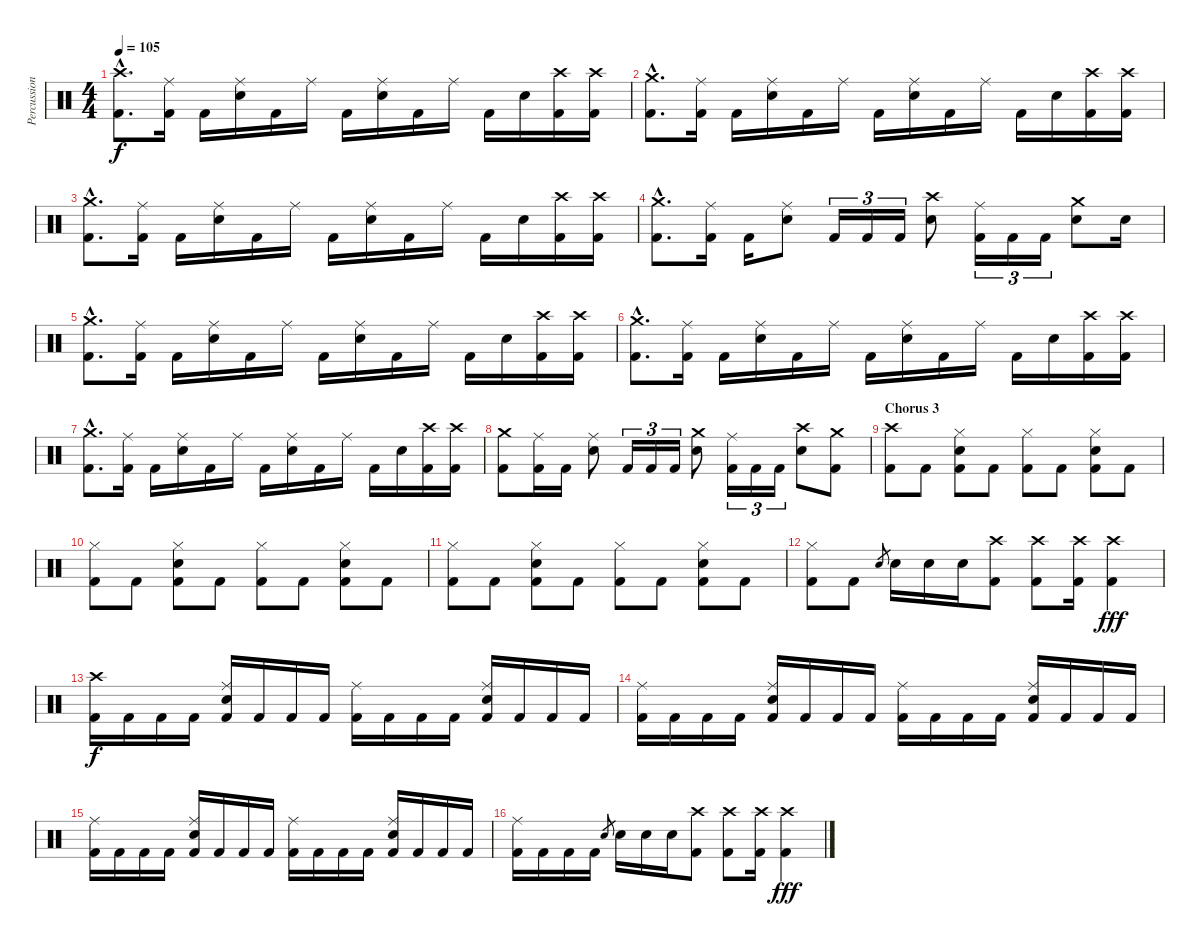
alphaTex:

\track ("Percussion" "Percussion") {instrument percussion}
\staff {score}
\articulation defaults
\ts (4 4)
\tempo 105
\clef neutral
\ks c
("Crash high (hit)"{hac} "Kick (hit) 2"{hac}).8{d dy f} ("Ride (middle)" "Kick (hit) 2").16 "Kick (hit) 2".16 ("Ride (middle)" "Snare (hit) 2").16 "Kick (hit) 2".16 "Ride (middle)".16 "Kick (hit) 2".16 ("Ride (middle)" "Snare (hit) 2").16 "Kick (hit) 2".16 "Ride (middle)".16 "Kick (hit) 2".16 "Snare (hit) 2".16 ("Crash high (hit)" "Kick (hit) 2").16 ("Crash high (hit)" "Kick (hit) 2").16 |
("Crash medium (hit)"{hac} "Kick (hit) 2"{hac}).8{d} ("Ride (middle)" "Kick (hit) 2").16 "Kick (hit) 2".16 ("Ride (middle)" "Snare (hit) 2").16 "Kick (hit) 2".16 "Ride (middle)".16 "Kick (hit) 2".16 ("Ride (middle)" "Snare (hit) 2").16 "Kick (hit) 2".16 "Ride (middle)".16 "Kick (hit) 2".16 "Snare (hit) 2".16 ("Crash high (hit)" "Kick (hit) 2").16 ("Crash high (hit)" "Kick (hit) 2").16 |
("Crash medium (hit)"{hac} "Kick (hit) 2"{hac}).8{d} ("Ride (middle)" "Kick (hit) 2").16 "Kick (hit) 2".16 ("Ride (middle)" "Snare (hit) 2").16 "Kick (hit) 2".16 "Ride (middle)".16 "Kick (hit) 2".16 ("Ride (middle)" "Snare (hit) 2").16 "Kick (hit) 2".16 "Ride (middle)".16 "Kick (hit) 2".16 "Snare (hit) 2".16 ("Crash high (hit)" "Kick (hit) 2").16 ("Crash high (hit)" "Kick (hit) 2").16 |
("Crash medium (hit)"{hac} "Kick (hit) 2"{hac}).8{d} ("Ride (middle)" "Kick (hit) 2").16 "Kick (hit) 2".16 ("Ride (middle)" "Snare (hit) 2").8 "Kick (hit) 2".16{tu (3 2)} "Kick (hit) 2".16{tu (3 2)} "Kick (hit) 2".16{tu (3 2)} ("Crash high (hit)" "Snare (hit) 2").8 ("Ride (middle)" "Kick (hit) 2").16{tu (3 2)} "Kick (hit) 2".16{tu (3 2)} "Kick (hit) 2".16{tu (3 2)} ("Crash medium (hit)" "Snare (hit) 2").8 "Snare (hit) 2".16 |
("Crash medium (hit)"{hac} "Kick (hit) 2"{hac}).8{d} ("Ride (middle)" "Kick (hit) 2").16 "Kick (hit) 2".16 ("Ride (middle)" "Snare (hit) 2").16 "Kick (hit) 2".16 "Ride (middle)".16 "Kick (hit) 2".16 ("Ride (middle)" "Snare (hit) 2").16 "Kick (hit) 2".16 "Ride (middle)".16 "Kick (hit) 2".16 "Snare (hit) 2".16 ("Crash high (hit)" "Kick (hit) 2").16 ("Crash high (hit)" "Kick (hit) 2").16 |
("Crash medium (hit)"{hac} "Kick (hit) 2"{hac}).8{d} ("Ride (middle)" "Kick (hit) 2").16 "Kick (hit) 2".16 ("Ride (middle)" "Snare (hit) 2").16 "Kick (hit) 2".16 "Ride (middle)".16 "Kick (hit) 2".16 ("Ride (middle)" "Snare (hit) 2").16 "Kick (hit) 2".16 "Ride (middle)".16 "Kick (hit) 2".16 "Snare (hit) 2".16 ("Crash high (hit)" "Kick (hit) 2").16 ("Crash high (hit)" "Kick (hit) 2").16 |
("Crash medium (hit)"{hac} "Kick (hit) 2"{hac}).8{d} ("Ride (middle)" "Kick (hit) 2").16 "Kick (hit) 2".16 ("Ride (middle)" "Snare (hit) 2").16 "Kick (hit) 2".16 "Ride (middle)".16 "Kick (hit) 2".16 ("Ride (middle)" "Snare (hit) 2").16 "Kick (hit) 2".16 "Ride (middle)".16 "Kick (hit) 2".16 "Snare (hit) 2".16 ("Crash high (hit)" "Kick (hit) 2").16 ("Crash high (hit)" "Kick (hit) 2").16 |
("Crash medium (hit)" "Kick (hit) 2").8 ("Ride (middle)" "Kick (hit) 2").16 "Kick (hit) 2".16 ("Ride (middle)" "Snare (hit) 2").8 "Kick (hit) 2".16{tu (3 2)} "Kick (hit) 2".16{tu (3 2)} "Kick (hit) 2".16{tu (3 2)} ("Crash medium (hit)" "Snare (hit) 2").8 ("Ride (middle)" "Kick (hit) 2").16{tu (3 2)} "Kick (hit) 2".16{tu (3 2)} "Kick (hit) 2".16{tu (3 2)} ("Crash high (hit)" "Snare (hit) 2").8 ("Crash medium (hit)" "Kick (hit) 2").8 |
\section ("" "Chorus 3")
("Crash high (hit)" "Kick (hit) 2").8 "Kick (hit) 2".8 ("Hi-Hat (closed)" "Snare (hit) 2" "Kick (hit) 2").8 "Kick (hit) 2".8 ("Hi-Hat (closed)" "Kick (hit) 2").8 "Kick (hit) 2".8 ("Hi-Hat (closed)" "Snare (hit) 2" "Kick (hit) 2").8 "Kick (hit) 2".8 |
("Hi-Hat (closed)" "Kick (hit) 2").8 "Kick (hit) 2".8 ("Hi-Hat (closed)" "Snare (hit) 2" "Kick (hit) 2").8 "Kick (hit) 2".8 ("Hi-Hat (closed)" "Kick (hit) 2").8 "Kick (hit) 2".8 ("Hi-Hat (closed)" "Snare (hit) 2" "Kick (hit) 2").8 "Kick (hit) 2".8 |
("Hi-Hat (closed)" "Kick (hit) 2").8 "Kick (hit) 2".8 ("Hi-Hat (closed)" "Snare (hit) 2" "Kick (hit) 2").8 "Kick (hit) 2".8 ("Hi-Hat (closed)" "Kick (hit) 2").8 "Kick (hit) 2".8 ("Hi-Hat (closed)" "Snare (hit) 2" "Kick (hit) 2").8 "Kick (hit) 2".8 |
("Hi-Hat (closed)" "Kick (hit) 2").8 "Kick (hit) 2".8 "Snare (hit) 2".8{gr} "Snare (hit) 2".16 "Snare (hit) 2".16 "Snare (hit) 2".16 ("Crash high (hit)" "Kick (hit) 2").8 ("Crash high (hit)" "Kick (hit) 2").8 ("Crash high (hit)" "Kick (hit) 2").16 ("Crash high (hit)" "Kick (hit) 2").4{dy fff} |
("Crash high (hit)" "Kick (hit) 2").16{dy f} "Kick (hit) 2".16 "Kick (hit) 2".16 "Kick (hit) 2".16 ("Ride (middle)" "Snare (hit) 2" "Kick (hit) 2").16 "Kick (hit) 2".16 "Kick (hit) 2".16 "Kick (hit) 2".16 ("Ride (middle)" "Kick (hit) 2").16 "Kick (hit) 2".16 "Kick (hit) 2".16 "Kick (hit) 2".16 ("Ride (middle)" "Snare (hit) 2" "Kick (hit) 2").16 "Kick (hit) 2".16 "Kick (hit) 2".16 "Kick (hit) 2".16 |
("Ride (middle)" "Kick (hit) 2").16 "Kick (hit) 2".16 "Kick (hit) 2".16 "Kick (hit) 2".16 ("Ride (middle)" "Snare (hit) 2" "Kick (hit) 2").16 "Kick (hit) 2".16 "Kick (hit) 2".16 "Kick (hit) 2".16 ("Ride (middle)" "Kick (hit) 2").16 "Kick (hit) 2".16 "Kick (hit) 2".16 "Kick (hit) 2".16 ("Ride (middle)" "Snare (hit) 2" "Kick (hit) 2").16 "Kick (hit) 2".16 "Kick (hit) 2".16 "Kick (hit) 2".16 |
("Ride (middle)" "Kick (hit) 2").16 "Kick (hit) 2".16 "Kick (hit) 2".16 "Kick (hit) 2".16 ("Ride (middle)" "Snare (hit) 2" "Kick (hit) 2").16 "Kick (hit) 2".16 "Kick (hit) 2".16 "Kick (hit) 2".16 ("Ride (middle)" "Kick (hit) 2").16 "Kick (hit) 2".16 "Kick (hit) 2".16 "Kick (hit) 2".16 ("Ride (middle)" "Snare (hit) 2" "Kick (hit) 2").16 "Kick (hit) 2".16 "Kick (hit) 2".16 "Kick (hit) 2".16 |
("Ride (middle)" "Kick (hit) 2").16 "Kick (hit) 2".16 "Kick (hit) 2".16 "Kick (hit) 2".16 "Snare (hit) 2".8{gr} "Snare (hit) 2".16 "Snare (hit) 2".16 "Snare (hit) 2".16 ("Crash high (hit)" "Kick (hit) 2").8 ("Crash high (hit)" "Kick (hit) 2").8 ("Crash high (hit)" "Kick (hit) 2").16 ("Crash high (hit)" "Kick (hit) 2").4{dy fff}
